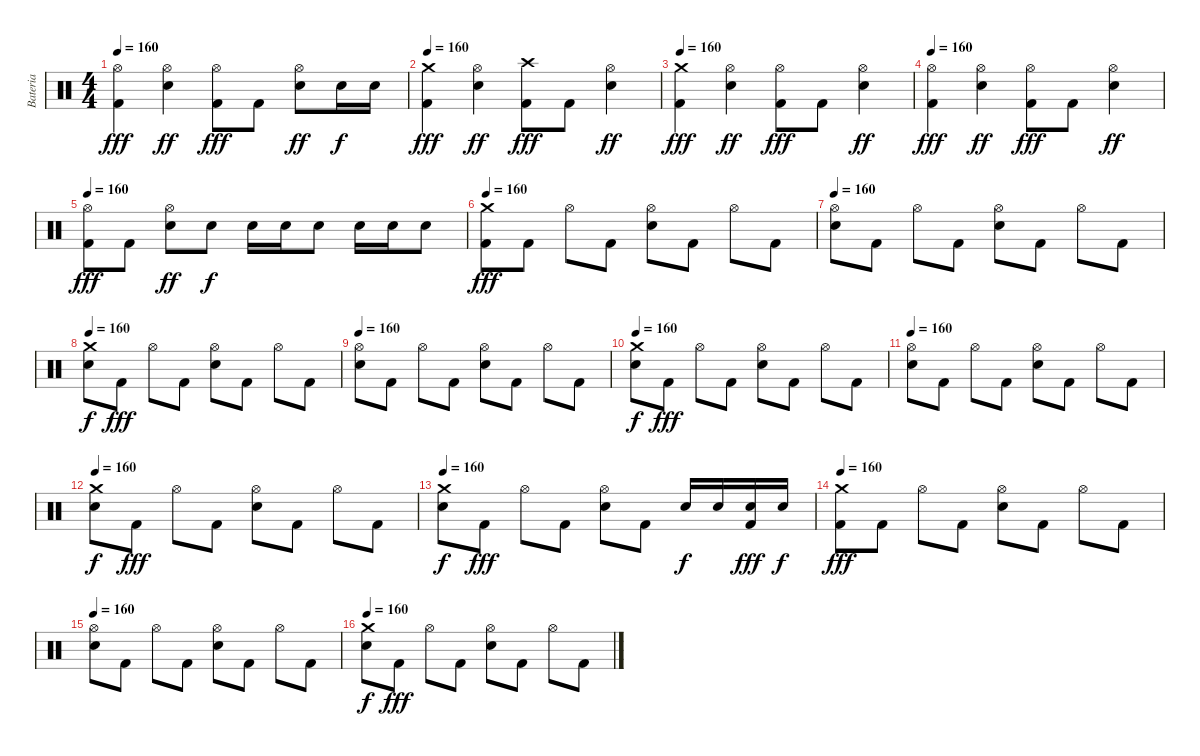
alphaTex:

\track ("Bateria" "Bateria") {instrument percussion}
\staff {score}
\articulation defaults
\ts (4 4)
\tempo 160
\clef neutral
\ks c
("Hi-Hat (open)" "Kick (hit) 2").4{dy fff} ("Hi-Hat (open)" "Electric Snare (hit)").4{dy ff} ("Hi-Hat (open)" "Kick (hit) 2").8{dy fff} "Kick (hit) 2".8 ("Hi-Hat (open)" "Electric Snare (hit)").8{dy ff} "Electric Snare (hit)".16{dy f} "Electric Snare (hit)".16 |
\tempo 160
("Crash medium (hit)" "Kick (hit) 2").4{dy fff} ("Hi-Hat (open)" "Electric Snare (hit)").4{dy ff} ("Crash high (hit)" "Kick (hit) 2").8{dy fff} "Kick (hit) 2".8 ("Hi-Hat (open)" "Electric Snare (hit)").4{dy ff} |
\tempo 160
("Crash medium (hit)" "Kick (hit) 2").4{dy fff} ("Hi-Hat (open)" "Electric Snare (hit)").4{dy ff} ("Hi-Hat (open)" "Kick (hit) 2").8{dy fff} "Kick (hit) 2".8 ("Hi-Hat (open)" "Electric Snare (hit)").4{dy ff} |
\tempo 160
("Hi-Hat (open)" "Kick (hit) 2").4{dy fff} ("Hi-Hat (open)" "Electric Snare (hit)").4{dy ff} ("Hi-Hat (open)" "Kick (hit) 2").8{dy fff} "Kick (hit) 2".8 ("Hi-Hat (open)" "Electric Snare (hit)").4{dy ff} |
\tempo 160
("Hi-Hat (open)" "Kick (hit) 2").8{dy fff} "Kick (hit) 2".8 ("Hi-Hat (open)" "Electric Snare (hit)").8{dy ff} "Electric Snare (hit)".8{dy f} "Electric Snare (hit)".16 "Electric Snare (hit)".16 "Electric Snare (hit)".8 "Electric Snare (hit)".16 "Electric Snare (hit)".16 "Electric Snare (hit)".8 |
\tempo 160
("Crash medium (hit)" "Kick (hit) 2").8{dy fff} "Kick (hit) 2".8 "Hi-Hat (open)".8 "Kick (hit) 2".8 ("Hi-Hat (open)" "Electric Snare (hit)").8 "Kick (hit) 2".8 "Hi-Hat (open)".8 "Kick (hit) 2".8 |
\tempo 160
("Hi-Hat (open)" "Electric Snare (hit)").8 "Kick (hit) 2".8 "Hi-Hat (open)".8 "Kick (hit) 2".8 ("Hi-Hat (open)" "Electric Snare (hit)").8 "Kick (hit) 2".8 "Hi-Hat (open)".8 "Kick (hit) 2".8 |
\tempo 160
("Crash medium (hit)" "Electric Snare (hit)").8{dy f} "Kick (hit) 2".8{dy fff} "Hi-Hat (open)".8 "Kick (hit) 2".8 ("Hi-Hat (open)" "Electric Snare (hit)").8 "Kick (hit) 2".8 "Hi-Hat (open)".8 "Kick (hit) 2".8 |
\tempo 160
("Hi-Hat (open)" "Electric Snare (hit)").8 "Kick (hit) 2".8 "Hi-Hat (open)".8 "Kick (hit) 2".8 ("Hi-Hat (open)" "Electric Snare (hit)").8 "Kick (hit) 2".8 "Hi-Hat (open)".8 "Kick (hit) 2".8 |
\tempo 160
("Crash medium (hit)" "Electric Snare (hit)").8{dy f} "Kick (hit) 2".8{dy fff} "Hi-Hat (open)".8 "Kick (hit) 2".8 ("Hi-Hat (open)" "Electric Snare (hit)").8 "Kick (hit) 2".8 "Hi-Hat (open)".8 "Kick (hit) 2".8 |
\tempo 160
("Hi-Hat (open)" "Electric Snare (hit)").8 "Kick (hit) 2".8 "Hi-Hat (open)".8 "Kick (hit) 2".8 ("Hi-Hat (open)" "Electric Snare (hit)").8 "Kick (hit) 2".8 "Hi-Hat (open)".8 "Kick (hit) 2".8 |
\tempo 160
("Crash medium (hit)" "Electric Snare (hit)").8{dy f} "Kick (hit) 2".8{dy fff} "Hi-Hat (open)".8 "Kick (hit) 2".8 ("Hi-Hat (open)" "Electric Snare (hit)").8 "Kick (hit) 2".8 "Hi-Hat (open)".8 "Kick (hit) 2".8 |
\tempo 160
("Crash medium (hit)" "Electric Snare (hit)").8{dy f} "Kick (hit) 2".8{dy fff} "Hi-Hat (open)".8 "Kick (hit) 2".8 ("Hi-Hat (open)" "Electric Snare (hit)").8 "Kick (hit) 2".8 "Electric Snare (hit)".16{dy f} "Electric Snare (hit)".16 ("Electric Snare (hit)" "Kick (hit) 2").16{dy fff} "Electric Snare (hit)".16{dy f} |
\tempo 160
("Crash medium (hit)" "Kick (hit) 2").8{dy fff} "Kick (hit) 2".8 "Hi-Hat (open)".8 "Kick (hit) 2".8 ("Hi-Hat (open)" "Electric Snare (hit)").8 "Kick (hit) 2".8 "Hi-Hat (open)".8 "Kick (hit) 2".8 |
\tempo 160
("Hi-Hat (open)" "Electric Snare (hit)").8 "Kick (hit) 2".8 "Hi-Hat (open)".8 "Kick (hit) 2".8 ("Hi-Hat (open)" "Electric Snare (hit)").8 "Kick (hit) 2".8 "Hi-Hat (open)".8 "Kick (hit) 2".8 |
\tempo 160
("Crash medium (hit)" "Electric Snare (hit)").8{dy f} "Kick (hit) 2".8{dy fff} "Hi-Hat (open)".8 "Kick (hit) 2".8 ("Hi-Hat (open)" "Electric Snare (hit)").8 "Kick (hit) 2".8 "Hi-Hat (open)".8 "Kick (hit) 2".8
